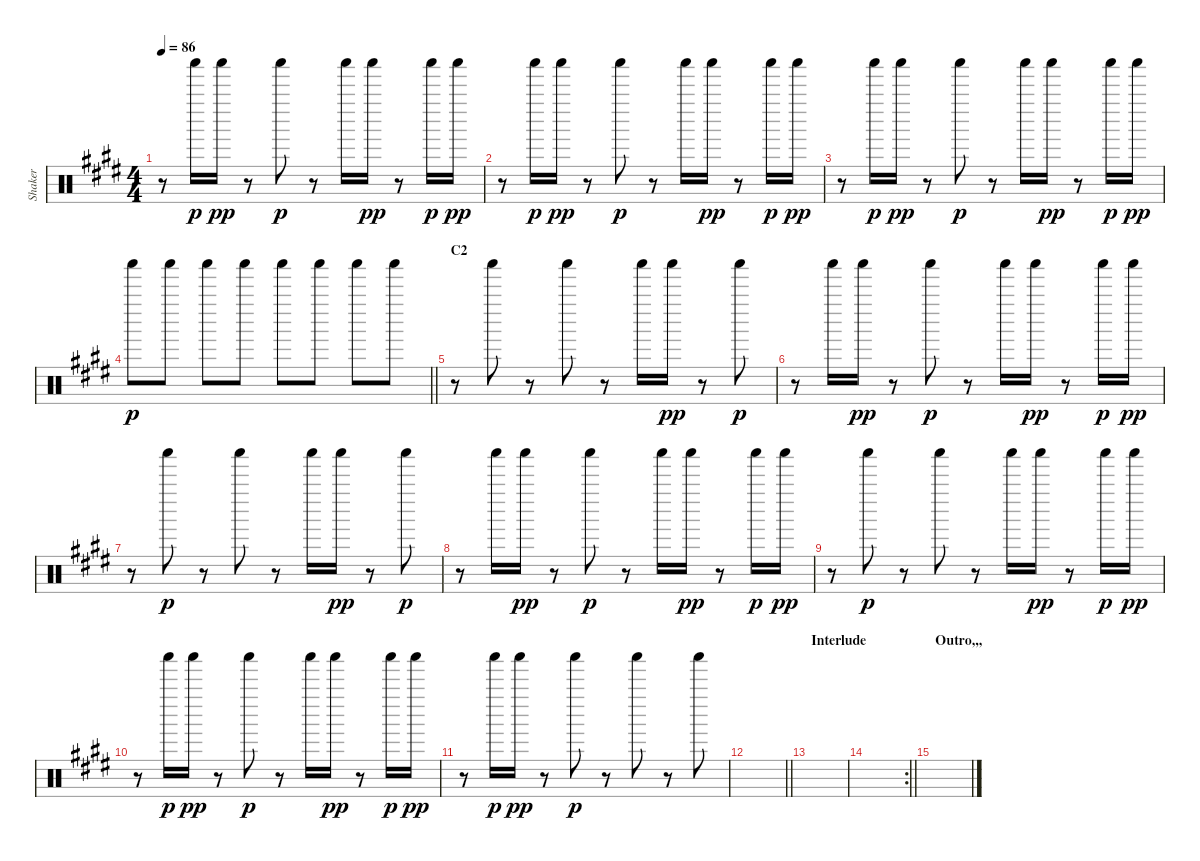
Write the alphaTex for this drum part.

\track ("Shaker" "Shaker") {instrument percussion}
\staff {score}
\articulation defaults
\ts (4 4)
\tempo 86
\clef neutral
\ks e
r.8{dy pp} "Shaker (hit)".16{dy p} "Shaker (hit)".16{dy pp} r.8 "Shaker (hit)".8{dy p} r.8 "Shaker (hit)".16 "Shaker (hit)".16{dy pp} r.8 "Shaker (hit)".16{dy p} "Shaker (hit)".16{dy pp} |
r.8 "Shaker (hit)".16{dy p} "Shaker (hit)".16{dy pp} r.8 "Shaker (hit)".8{dy p} r.8 "Shaker (hit)".16 "Shaker (hit)".16{dy pp} r.8 "Shaker (hit)".16{dy p} "Shaker (hit)".16{dy pp} |
r.8 "Shaker (hit)".16{dy p} "Shaker (hit)".16{dy pp} r.8 "Shaker (hit)".8{dy p} r.8 "Shaker (hit)".16 "Shaker (hit)".16{dy pp} r.8 "Shaker (hit)".16{dy p} "Shaker (hit)".16{dy pp} |
\barLineRight lightlight "Shaker (hit)".8{dy p} "Shaker (hit)".8 "Shaker (hit)".8 "Shaker (hit)".8 "Shaker (hit)".8 "Shaker (hit)".8 "Shaker (hit)".8 "Shaker (hit)".8
|
\section ("" "C2")
r.8 "Shaker (hit)".8 r.8 "Shaker (hit)".8 r.8 "Shaker (hit)".16 "Shaker (hit)".16{dy pp} r.8 "Shaker (hit)".8{dy p} |
r.8 "Shaker (hit)".16 "Shaker (hit)".16{dy pp} r.8 "Shaker (hit)".8{dy p} r.8 "Shaker (hit)".16 "Shaker (hit)".16{dy pp} r.8 "Shaker (hit)".16{dy p} "Shaker (hit)".16{dy pp} |
r.8 "Shaker (hit)".8{dy p} r.8 "Shaker (hit)".8 r.8 "Shaker (hit)".16 "Shaker (hit)".16{dy pp} r.8 "Shaker (hit)".8{dy p} |
r.8 "Shaker (hit)".16 "Shaker (hit)".16{dy pp} r.8 "Shaker (hit)".8{dy p} r.8 "Shaker (hit)".16 "Shaker (hit)".16{dy pp} r.8 "Shaker (hit)".16{dy p} "Shaker (hit)".16{dy pp} |
r.8 "Shaker (hit)".8{dy p} r.8 "Shaker (hit)".8 r.8 "Shaker (hit)".16 "Shaker (hit)".16{dy pp} r.8 "Shaker (hit)".16{dy p} "Shaker (hit)".16{dy pp} |
r.8 "Shaker (hit)".16{dy p} "Shaker (hit)".16{dy pp} r.8 "Shaker (hit)".8{dy p} r.8 "Shaker (hit)".16 "Shaker (hit)".16{dy pp} r.8 "Shaker (hit)".16{dy p} "Shaker (hit)".16{dy pp} |
r.8 "Shaker (hit)".16{dy p} "Shaker (hit)".16{dy pp} r.8 "Shaker (hit)".8{dy p} r.8 "Shaker (hit)".8 r.8 "Shaker (hit)".8 |
\barLineRight lightlight
|
\section ("" "Interlude")
|
\rc 2
\barLineRight lightlight
|
\section ("" "Outro,,,")
